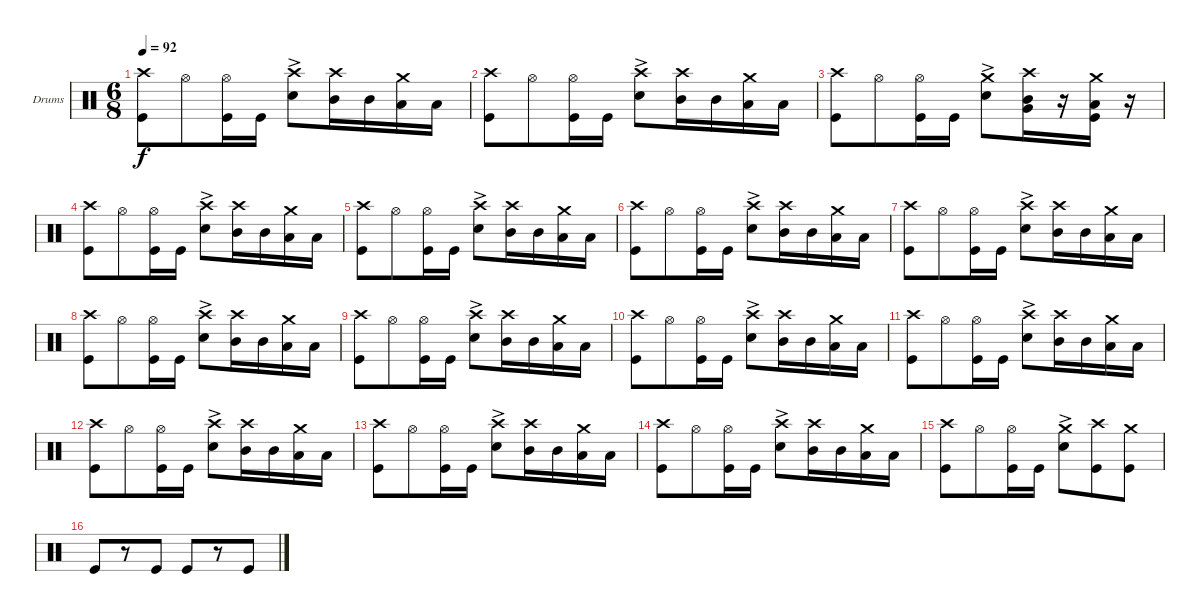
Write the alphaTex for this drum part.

\defaultSystemsLayout 4
\bracketExtendMode groupsimilarinstruments
\firstSystemTrackNameOrientation horizontal
\otherSystemsTrackNameOrientation horizontal
\track ("Drumkit" "Drums") {instrument percussion}
\staff {score}
\articulation defaults
\ts (6 8)
\tempo 92
\clef neutral
\ks c
("Kick (hit)" "Crash high (hit)").8{dy f} "Hi-Hat (open)".8 ("Hi-Hat (open)" "Kick (hit)").16 "Kick (hit)".16 ("Snare (hit) 2"{ac} "Crash high (hit)").8 ("Mid Tom (hit)" "Crash high (hit)").16 "Mid Tom (hit)".16 ("Low Tom (hit)" "Crash medium (hit)").16 "Low Tom (hit)".16 |
("Kick (hit)" "Crash high (hit)").8 "Hi-Hat (open)".8 ("Hi-Hat (open)" "Kick (hit)").16 "Kick (hit)".16 ("Snare (hit) 2"{ac} "Crash high (hit)").8 ("Mid Tom (hit)" "Crash high (hit)").16 "Mid Tom (hit)".16 ("Low Tom (hit)" "Crash medium (hit)").16 "Low Tom (hit)".16 |
("Kick (hit)" "Crash high (hit)").8 "Hi-Hat (open)".8 ("Hi-Hat (open)" "Kick (hit)").16 "Kick (hit)".16 ("Snare (hit) 2"{ac} "Crash medium (hit)").8 ("Mid Tom (hit)" "Very Low Tom (hit)" "Crash high (hit)").16 r.16 ("Low Tom (hit)" "Kick (hit)" "Crash medium (hit)").16 r.16 |
("Kick (hit)" "Crash high (hit)").8 "Hi-Hat (open)".8 ("Hi-Hat (open)" "Kick (hit)").16 "Kick (hit)".16 ("Snare (hit) 2"{ac} "Crash high (hit)").8 ("Mid Tom (hit)" "Crash high (hit)").16 "Mid Tom (hit)".16 ("Low Tom (hit)" "Crash medium (hit)").16 "Low Tom (hit)".16 |
("Kick (hit)" "Crash high (hit)").8 "Hi-Hat (open)".8 ("Hi-Hat (open)" "Kick (hit)").16 "Kick (hit)".16 ("Snare (hit) 2"{ac} "Crash high (hit)").8 ("Mid Tom (hit)" "Crash high (hit)").16 "Mid Tom (hit)".16 ("Low Tom (hit)" "Crash medium (hit)").16 "Low Tom (hit)".16 |
("Kick (hit)" "Crash high (hit)").8 "Hi-Hat (open)".8 ("Hi-Hat (open)" "Kick (hit)").16 "Kick (hit)".16 ("Snare (hit) 2"{ac} "Crash high (hit)").8 ("Mid Tom (hit)" "Crash high (hit)").16 "Mid Tom (hit)".16 ("Low Tom (hit)" "Crash medium (hit)").16 "Low Tom (hit)".16 |
("Kick (hit)" "Crash high (hit)").8 "Hi-Hat (open)".8 ("Hi-Hat (open)" "Kick (hit)").16 "Kick (hit)".16 ("Snare (hit) 2"{ac} "Crash high (hit)").8 ("Mid Tom (hit)" "Crash high (hit)").16 "Mid Tom (hit)".16 ("Low Tom (hit)" "Crash medium (hit)").16 "Low Tom (hit)".16 |
("Kick (hit)" "Crash high (hit)").8 "Hi-Hat (open)".8 ("Hi-Hat (open)" "Kick (hit)").16 "Kick (hit)".16 ("Snare (hit) 2"{ac} "Crash high (hit)").8 ("Mid Tom (hit)" "Crash high (hit)").16 "Mid Tom (hit)".16 ("Low Tom (hit)" "Crash medium (hit)").16 "Low Tom (hit)".16 |
("Kick (hit)" "Crash high (hit)").8 "Hi-Hat (open)".8 ("Hi-Hat (open)" "Kick (hit)").16 "Kick (hit)".16 ("Snare (hit) 2"{ac} "Crash high (hit)").8 ("Mid Tom (hit)" "Crash high (hit)").16 "Mid Tom (hit)".16 ("Low Tom (hit)" "Crash medium (hit)").16 "Low Tom (hit)".16 |
("Kick (hit)" "Crash high (hit)").8 "Hi-Hat (open)".8 ("Hi-Hat (open)" "Kick (hit)").16 "Kick (hit)".16 ("Snare (hit) 2"{ac} "Crash high (hit)").8 ("Mid Tom (hit)" "Crash high (hit)").16 "Mid Tom (hit)".16 ("Low Tom (hit)" "Crash medium (hit)").16 "Low Tom (hit)".16 |
("Kick (hit)" "Crash high (hit)").8 "Hi-Hat (open)".8 ("Hi-Hat (open)" "Kick (hit)").16 "Kick (hit)".16 ("Snare (hit) 2"{ac} "Crash high (hit)").8 ("Mid Tom (hit)" "Crash high (hit)").16 "Mid Tom (hit)".16 ("Low Tom (hit)" "Crash medium (hit)").16 "Low Tom (hit)".16 |
("Kick (hit)" "Crash high (hit)").8 "Hi-Hat (open)".8 ("Hi-Hat (open)" "Kick (hit)").16 "Kick (hit)".16 ("Snare (hit) 2"{ac} "Crash high (hit)").8 ("Mid Tom (hit)" "Crash high (hit)").16 "Mid Tom (hit)".16 ("Low Tom (hit)" "Crash medium (hit)").16 "Low Tom (hit)".16 |
("Kick (hit)" "Crash high (hit)").8 "Hi-Hat (open)".8 ("Hi-Hat (open)" "Kick (hit)").16 "Kick (hit)".16 ("Snare (hit) 2"{ac} "Crash high (hit)").8 ("Mid Tom (hit)" "Crash high (hit)").16 "Mid Tom (hit)".16 ("Low Tom (hit)" "Crash medium (hit)").16 "Low Tom (hit)".16 |
("Kick (hit)" "Crash high (hit)").8 "Hi-Hat (open)".8 ("Hi-Hat (open)" "Kick (hit)").16 "Kick (hit)".16 ("Snare (hit) 2"{ac} "Crash high (hit)").8 ("Mid Tom (hit)" "Crash high (hit)").16 "Mid Tom (hit)".16 ("Low Tom (hit)" "Crash medium (hit)").16 "Low Tom (hit)".16 |
("Kick (hit)" "Crash high (hit)").8 "Hi-Hat (open)".8 ("Hi-Hat (open)" "Kick (hit)").16 "Kick (hit)".16 ("Snare (hit) 2"{ac} "Crash medium (hit)").8 ("Kick (hit)" "Crash high (hit)").8 ("Kick (hit)" "Crash medium (hit)").8 |
"Kick (hit)".8 r.8 "Kick (hit)".8 "Kick (hit)".8 r.8 "Kick (hit)".8
